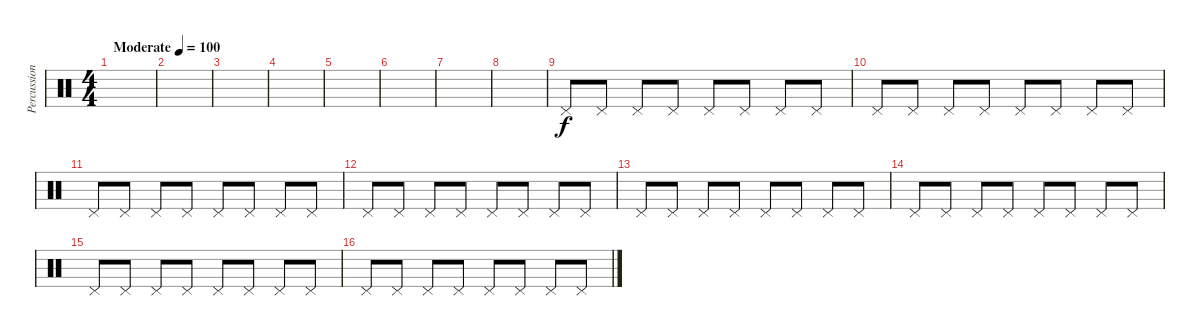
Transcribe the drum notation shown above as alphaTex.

\track ("Percussion" "Percussion") {instrument percussion}
\staff {score}
\articulation defaults
\ts (4 4)
\tempo (100 "Moderate")
\clef neutral
\ks c
|
|
|
|
|
|
|
|
"Pedal Hi-Hat (hit)".8 "Pedal Hi-Hat (hit)".8 "Pedal Hi-Hat (hit)".8 "Pedal Hi-Hat (hit)".8 "Pedal Hi-Hat (hit)".8 "Pedal Hi-Hat (hit)".8 "Pedal Hi-Hat (hit)".8 "Pedal Hi-Hat (hit)".8 |
"Pedal Hi-Hat (hit)".8 "Pedal Hi-Hat (hit)".8 "Pedal Hi-Hat (hit)".8 "Pedal Hi-Hat (hit)".8 "Pedal Hi-Hat (hit)".8 "Pedal Hi-Hat (hit)".8 "Pedal Hi-Hat (hit)".8 "Pedal Hi-Hat (hit)".8 |
"Pedal Hi-Hat (hit)".8 "Pedal Hi-Hat (hit)".8 "Pedal Hi-Hat (hit)".8 "Pedal Hi-Hat (hit)".8 "Pedal Hi-Hat (hit)".8 "Pedal Hi-Hat (hit)".8 "Pedal Hi-Hat (hit)".8 "Pedal Hi-Hat (hit)".8 |
"Pedal Hi-Hat (hit)".8 "Pedal Hi-Hat (hit)".8 "Pedal Hi-Hat (hit)".8 "Pedal Hi-Hat (hit)".8 "Pedal Hi-Hat (hit)".8 "Pedal Hi-Hat (hit)".8 "Pedal Hi-Hat (hit)".8 "Pedal Hi-Hat (hit)".8 |
"Pedal Hi-Hat (hit)".8 "Pedal Hi-Hat (hit)".8 "Pedal Hi-Hat (hit)".8 "Pedal Hi-Hat (hit)".8 "Pedal Hi-Hat (hit)".8 "Pedal Hi-Hat (hit)".8 "Pedal Hi-Hat (hit)".8 "Pedal Hi-Hat (hit)".8 |
"Pedal Hi-Hat (hit)".8 "Pedal Hi-Hat (hit)".8 "Pedal Hi-Hat (hit)".8 "Pedal Hi-Hat (hit)".8 "Pedal Hi-Hat (hit)".8 "Pedal Hi-Hat (hit)".8 "Pedal Hi-Hat (hit)".8 "Pedal Hi-Hat (hit)".8 |
"Pedal Hi-Hat (hit)".8 "Pedal Hi-Hat (hit)".8 "Pedal Hi-Hat (hit)".8 "Pedal Hi-Hat (hit)".8 "Pedal Hi-Hat (hit)".8 "Pedal Hi-Hat (hit)".8 "Pedal Hi-Hat (hit)".8 "Pedal Hi-Hat (hit)".8 |
"Pedal Hi-Hat (hit)".8 "Pedal Hi-Hat (hit)".8 "Pedal Hi-Hat (hit)".8 "Pedal Hi-Hat (hit)".8 "Pedal Hi-Hat (hit)".8 "Pedal Hi-Hat (hit)".8 "Pedal Hi-Hat (hit)".8 "Pedal Hi-Hat (hit)".8
